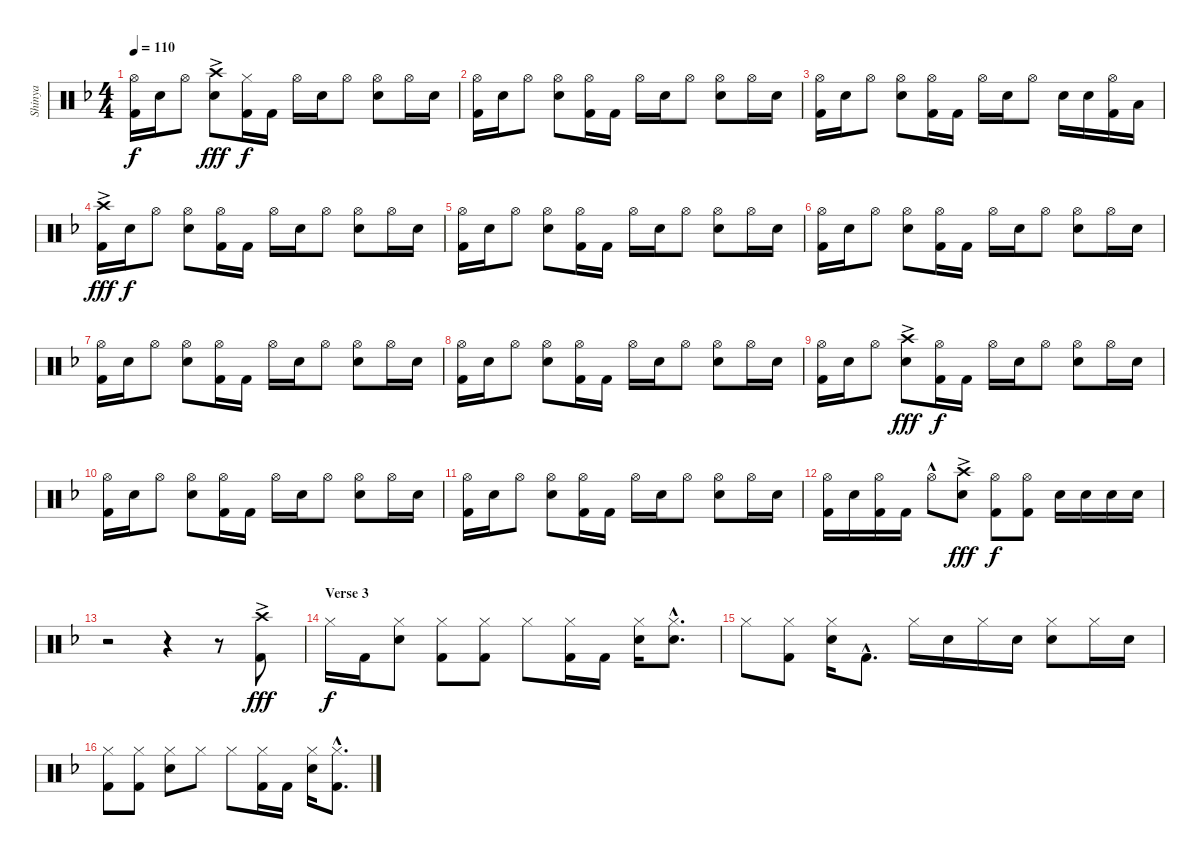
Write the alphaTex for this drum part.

\track ("Shinya" "Shinya") {instrument percussion}
\staff {score}
\articulation defaults
\ts (4 4)
\tempo 110
\clef neutral
\ks f
("Hi-Hat (open)" "Kick (hit) 2").16{dy f} "Snare (hit) 2".16 "Hi-Hat (open)".8 ("Crash high (hit)"{ac} "Snare (hit) 2").8{dy fff} ("Hi-Hat (closed)" "Kick (hit) 2").16{dy f} "Kick (hit) 2".16 "Hi-Hat (open)".16 "Snare (hit) 2".16 "Hi-Hat (open)".8 ("Hi-Hat (open)" "Snare (hit) 2").8 "Hi-Hat (open)".16 "Snare (hit) 2".16 |
("Hi-Hat (open)" "Kick (hit) 2").16 "Snare (hit) 2".16 "Hi-Hat (open)".8 ("Hi-Hat (open)" "Snare (hit) 2").8 ("Hi-Hat (open)" "Kick (hit) 2").16 "Kick (hit) 2".16 "Hi-Hat (open)".16 "Snare (hit) 2".16 "Hi-Hat (open)".8 ("Hi-Hat (open)" "Snare (hit) 2").8 "Hi-Hat (open)".16 "Snare (hit) 2".16 |
("Hi-Hat (open)" "Kick (hit) 2").16 "Snare (hit) 2".16 "Hi-Hat (open)".8 ("Hi-Hat (open)" "Snare (hit) 2").8 ("Hi-Hat (open)" "Kick (hit) 2").16 "Kick (hit) 2".16 "Hi-Hat (open)".16 "Snare (hit) 2".16 "Hi-Hat (open)".8 "Snare (hit) 2".16 "Snare (hit) 2".16 ("Hi-Hat (open)" "Kick (hit) 2").16 "Low Tom (hit)".16 |
("Crash high (hit)"{ac} "Kick (hit) 2").16{dy fff} "Snare (hit) 2".16{dy f} "Hi-Hat (open)".8 ("Hi-Hat (open)" "Snare (hit) 2").8 ("Hi-Hat (open)" "Kick (hit) 2").16 "Kick (hit) 2".16 "Hi-Hat (open)".16 "Snare (hit) 2".16 "Hi-Hat (open)".8 ("Hi-Hat (open)" "Snare (hit) 2").8 "Hi-Hat (open)".16 "Snare (hit) 2".16 |
("Hi-Hat (open)" "Kick (hit) 2").16 "Snare (hit) 2".16 "Hi-Hat (open)".8 ("Hi-Hat (open)" "Snare (hit) 2").8 ("Hi-Hat (open)" "Kick (hit) 2").16 "Kick (hit) 2".16 "Hi-Hat (open)".16 "Snare (hit) 2".16 "Hi-Hat (open)".8 ("Hi-Hat (open)" "Snare (hit) 2").8 "Hi-Hat (open)".16 "Snare (hit) 2".16 |
("Hi-Hat (open)" "Kick (hit) 2").16 "Snare (hit) 2".16 "Hi-Hat (open)".8 ("Hi-Hat (open)" "Snare (hit) 2").8 ("Hi-Hat (open)" "Kick (hit) 2").16 "Kick (hit) 2".16 "Hi-Hat (open)".16 "Snare (hit) 2".16 "Hi-Hat (open)".8 ("Hi-Hat (open)" "Snare (hit) 2").8 "Hi-Hat (open)".16 "Snare (hit) 2".16 |
("Hi-Hat (open)" "Kick (hit) 2").16 "Snare (hit) 2".16 "Hi-Hat (open)".8 ("Hi-Hat (open)" "Snare (hit) 2").8 ("Hi-Hat (open)" "Kick (hit) 2").16 "Kick (hit) 2".16 "Hi-Hat (open)".16 "Snare (hit) 2".16 "Hi-Hat (open)".8 ("Hi-Hat (open)" "Snare (hit) 2").8 "Hi-Hat (open)".16 "Snare (hit) 2".16 |
("Hi-Hat (open)" "Kick (hit) 2").16 "Snare (hit) 2".16 "Hi-Hat (open)".8 ("Hi-Hat (open)" "Snare (hit) 2").8 ("Hi-Hat (open)" "Kick (hit) 2").16 "Kick (hit) 2".16 "Hi-Hat (open)".16 "Snare (hit) 2".16 "Hi-Hat (open)".8 ("Hi-Hat (open)" "Snare (hit) 2").8 "Hi-Hat (open)".16 "Snare (hit) 2".16 |
("Hi-Hat (open)" "Kick (hit) 2").16 "Snare (hit) 2".16 "Hi-Hat (open)".8 ("Crash high (hit)"{ac} "Snare (hit) 2").8{dy fff} ("Hi-Hat (open)" "Kick (hit) 2").16{dy f} "Kick (hit) 2".16 "Hi-Hat (open)".16 "Snare (hit) 2".16 "Hi-Hat (open)".8 ("Hi-Hat (open)" "Snare (hit) 2").8 "Hi-Hat (open)".16 "Snare (hit) 2".16 |
("Hi-Hat (open)" "Kick (hit) 2").16 "Snare (hit) 2".16 "Hi-Hat (open)".8 ("Hi-Hat (open)" "Snare (hit) 2").8 ("Hi-Hat (open)" "Kick (hit) 2").16 "Kick (hit) 2".16 "Hi-Hat (open)".16 "Snare (hit) 2".16 "Hi-Hat (open)".8 ("Hi-Hat (open)" "Snare (hit) 2").8 "Hi-Hat (open)".16 "Snare (hit) 2".16 |
("Hi-Hat (open)" "Kick (hit) 2").16 "Snare (hit) 2".16 "Hi-Hat (open)".8 ("Hi-Hat (open)" "Snare (hit) 2").8 ("Hi-Hat (open)" "Kick (hit) 2").16 "Kick (hit) 2".16 "Hi-Hat (open)".16 "Snare (hit) 2".16 "Hi-Hat (open)".8 ("Hi-Hat (open)" "Snare (hit) 2").8 "Hi-Hat (open)".16 "Snare (hit) 2".16 |
("Hi-Hat (open)" "Kick (hit) 2").16 "Snare (hit) 2".16 ("Hi-Hat (open)" "Kick (hit) 2").16 "Kick (hit) 2".16 "Hi-Hat (open)"{hac}.8 ("Crash high (hit)"{ac} "Snare (hit) 2").8{dy fff} ("Hi-Hat (open)" "Kick (hit) 2").8{dy f} ("Hi-Hat (open)" "Kick (hit) 2").8 "Snare (hit) 2".16 "Snare (hit) 2".16 "Snare (hit) 2".16 "Snare (hit) 2".16 |
r.2 r.4 r.8 ("Crash high (hit)"{ac} "Kick (hit) 2").8{dy fff} |
\section ("" "Verse 3")
"Hi-Hat (closed)".16{dy f} "Kick (hit) 2".16 ("Hi-Hat (closed)" "Snare (hit) 2").8 ("Hi-Hat (closed)" "Kick (hit) 2").8 ("Hi-Hat (closed)" "Kick (hit) 2").8 "Hi-Hat (closed)".8 ("Hi-Hat (closed)" "Kick (hit) 2").16 "Kick (hit) 2".16 ("Hi-Hat (closed)" "Snare (hit) 2").16 ("Hi-Hat (closed)"{hac} "Snare (hit) 2"{hac}).8{d} |
"Hi-Hat (closed)".8 ("Hi-Hat (closed)" "Kick (hit) 2").8 ("Hi-Hat (closed)" "Snare (hit) 2").16 "Kick (hit) 2"{hac}.8{d} "Hi-Hat (closed)".16 "Snare (hit) 2".16 "Hi-Hat (closed)".16 "Snare (hit) 2".16 ("Hi-Hat (closed)" "Snare (hit) 2").8 "Hi-Hat (closed)".16 "Snare (hit) 2".16 |
("Hi-Hat (closed)" "Kick (hit) 2").8 ("Hi-Hat (closed)" "Kick (hit) 2").8 ("Hi-Hat (closed)" "Snare (hit) 2").8 "Hi-Hat (closed)".8 "Hi-Hat (closed)".8 ("Hi-Hat (closed)" "Kick (hit) 2").16 "Kick (hit) 2".16 ("Hi-Hat (closed)" "Snare (hit) 2").16 ("Hi-Hat (closed)"{hac} "Kick (hit) 2"{hac}).8{d}
